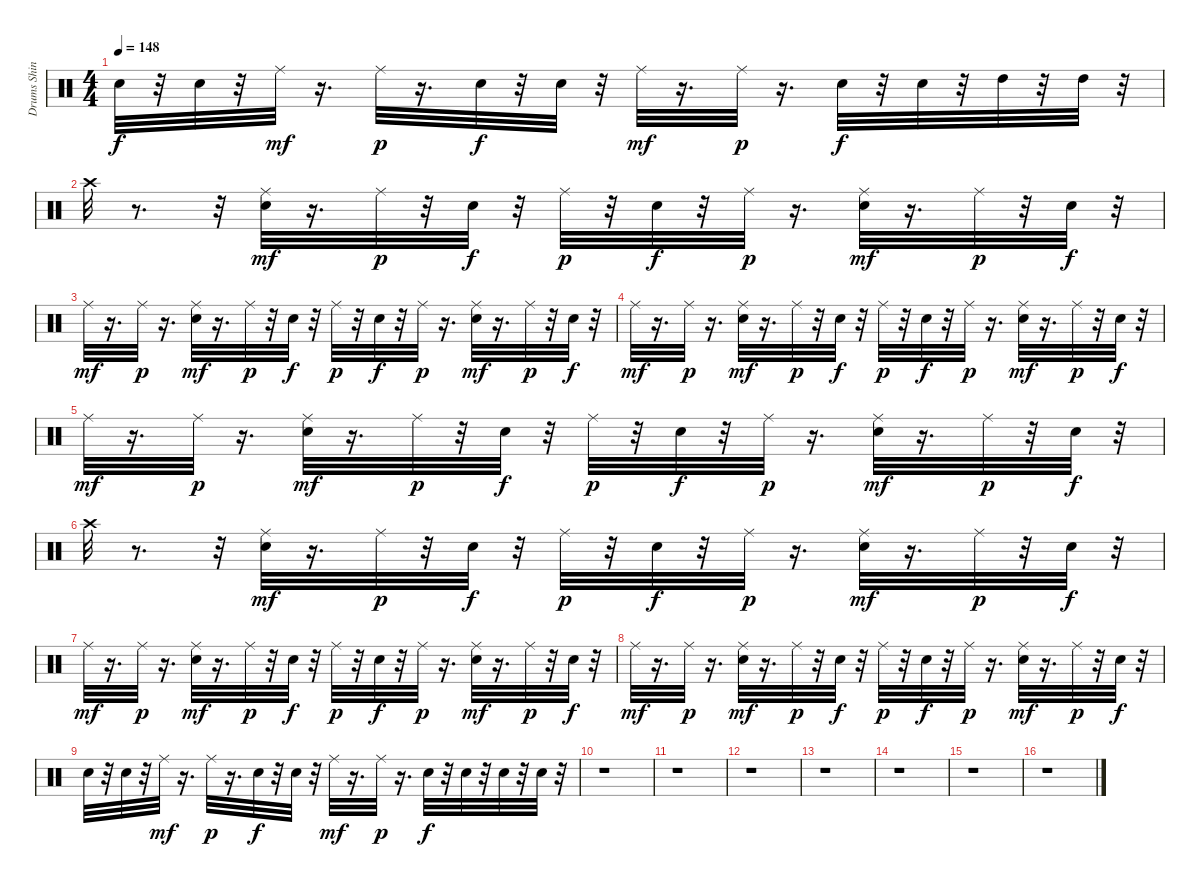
\track ("Drums Shinya         " "Drums Shin") {instrument percussion}
\staff {score}
\articulation defaults
\ts (4 4)
\tempo 148
\clef neutral
\ks c "Electric Snare (hit)".32{dy f}
r.32 "Electric Snare (hit)".32 r.32 "Ride (middle)".32{dy mf} r.16{d} "Ride (middle)".32{dy p} r.16{d} "Electric Snare (hit)".32{dy f} r.32 "Electric Snare (hit)".32 r.32 "Ride (middle)".32{dy mf} r.16{d} "Ride (middle)".32{dy p} r.16{d} "Electric Snare (hit)".32{dy f} r.32 "Electric Snare (hit)".32 r.32 "High Tom (hit)".32 r.32 "High Tom (hit)".32 r.32 |
"Crash high (hit)".32 r.8{d} r.32 ("Electric Snare (hit)" "Ride (middle)").32{dy mf} r.16{d} "Ride (middle)".32{dy p} r.32 "Electric Snare (hit)".32{dy f} r.32 "Ride (middle)".32{dy p} r.32 "Electric Snare (hit)".32{dy f} r.32 "Ride (middle)".32{dy p} r.16{d} ("Electric Snare (hit)" "Ride (middle)").32{dy mf} r.16{d} "Ride (middle)".32{dy p} r.32 "Electric Snare (hit)".32{dy f} r.32 |
"Ride (middle)".32{dy mf} r.16{d} "Ride (middle)".32{dy p} r.16{d} ("Electric Snare (hit)" "Ride (middle)").32{dy mf} r.16{d} "Ride (middle)".32{dy p} r.32 "Electric Snare (hit)".32{dy f} r.32 "Ride (middle)".32{dy p} r.32 "Electric Snare (hit)".32{dy f} r.32 "Ride (middle)".32{dy p} r.16{d} ("Electric Snare (hit)" "Ride (middle)").32{dy mf} r.16{d} "Ride (middle)".32{dy p} r.32 "Electric Snare (hit)".32{dy f} r.32 |
"Ride (middle)".32{dy mf} r.16{d} "Ride (middle)".32{dy p} r.16{d} ("Electric Snare (hit)" "Ride (middle)").32{dy mf} r.16{d} "Ride (middle)".32{dy p} r.32 "Electric Snare (hit)".32{dy f} r.32 "Ride (middle)".32{dy p} r.32 "Electric Snare (hit)".32{dy f} r.32 "Ride (middle)".32{dy p} r.16{d} ("Electric Snare (hit)" "Ride (middle)").32{dy mf} r.16{d} "Ride (middle)".32{dy p} r.32 "Electric Snare (hit)".32{dy f} r.32 |
"Ride (middle)".32{dy mf} r.16{d} "Ride (middle)".32{dy p} r.16{d} ("Electric Snare (hit)" "Ride (middle)").32{dy mf} r.16{d} "Ride (middle)".32{dy p} r.32 "Electric Snare (hit)".32{dy f} r.32 "Ride (middle)".32{dy p} r.32 "Electric Snare (hit)".32{dy f} r.32 "Ride (middle)".32{dy p} r.16{d} ("Electric Snare (hit)" "Ride (middle)").32{dy mf} r.16{d} "Ride (middle)".32{dy p} r.32 "Electric Snare (hit)".32{dy f} r.32 |
"Crash high (hit)".32 r.8{d} r.32 ("Electric Snare (hit)" "Ride (middle)").32{dy mf} r.16{d} "Ride (middle)".32{dy p} r.32 "Electric Snare (hit)".32{dy f} r.32 "Ride (middle)".32{dy p} r.32 "Electric Snare (hit)".32{dy f} r.32 "Ride (middle)".32{dy p} r.16{d} ("Electric Snare (hit)" "Ride (middle)").32{dy mf} r.16{d} "Ride (middle)".32{dy p} r.32 "Electric Snare (hit)".32{dy f} r.32 |
"Ride (middle)".32{dy mf} r.16{d} "Ride (middle)".32{dy p} r.16{d} ("Electric Snare (hit)" "Ride (middle)").32{dy mf} r.16{d} "Ride (middle)".32{dy p} r.32 "Electric Snare (hit)".32{dy f} r.32 "Ride (middle)".32{dy p} r.32 "Electric Snare (hit)".32{dy f} r.32 "Ride (middle)".32{dy p} r.16{d} ("Electric Snare (hit)" "Ride (middle)").32{dy mf} r.16{d} "Ride (middle)".32{dy p} r.32 "Electric Snare (hit)".32{dy f} r.32 |
"Ride (middle)".32{dy mf} r.16{d} "Ride (middle)".32{dy p} r.16{d} ("Electric Snare (hit)" "Ride (middle)").32{dy mf} r.16{d} "Ride (middle)".32{dy p} r.32 "Electric Snare (hit)".32{dy f} r.32 "Ride (middle)".32{dy p} r.32 "Electric Snare (hit)".32{dy f} r.32 "Ride (middle)".32{dy p} r.16{d} ("Electric Snare (hit)" "Ride (middle)").32{dy mf} r.16{d} "Ride (middle)".32{dy p} r.32 "Electric Snare (hit)".32{dy f} r.32 |
"Electric Snare (hit)".32 r.32 "Electric Snare (hit)".32 r.32 "Ride (middle)".32{dy mf} r.16{d} "Ride (middle)".32{dy p} r.16{d} "Electric Snare (hit)".32{dy f} r.32 "Electric Snare (hit)".32 r.32 "Ride (middle)".32{dy mf} r.16{d} "Ride (middle)".32{dy p} r.16{d} "Electric Snare (hit)".32{dy f} r.32 "Electric Snare (hit)".32 r.32 "Electric Snare (hit)".32 r.32 "Electric Snare (hit)".32 r.32 |
r.1 |
r.1 |
r.1 |
r.1 |
r.1 |
r.1 |
r.1
